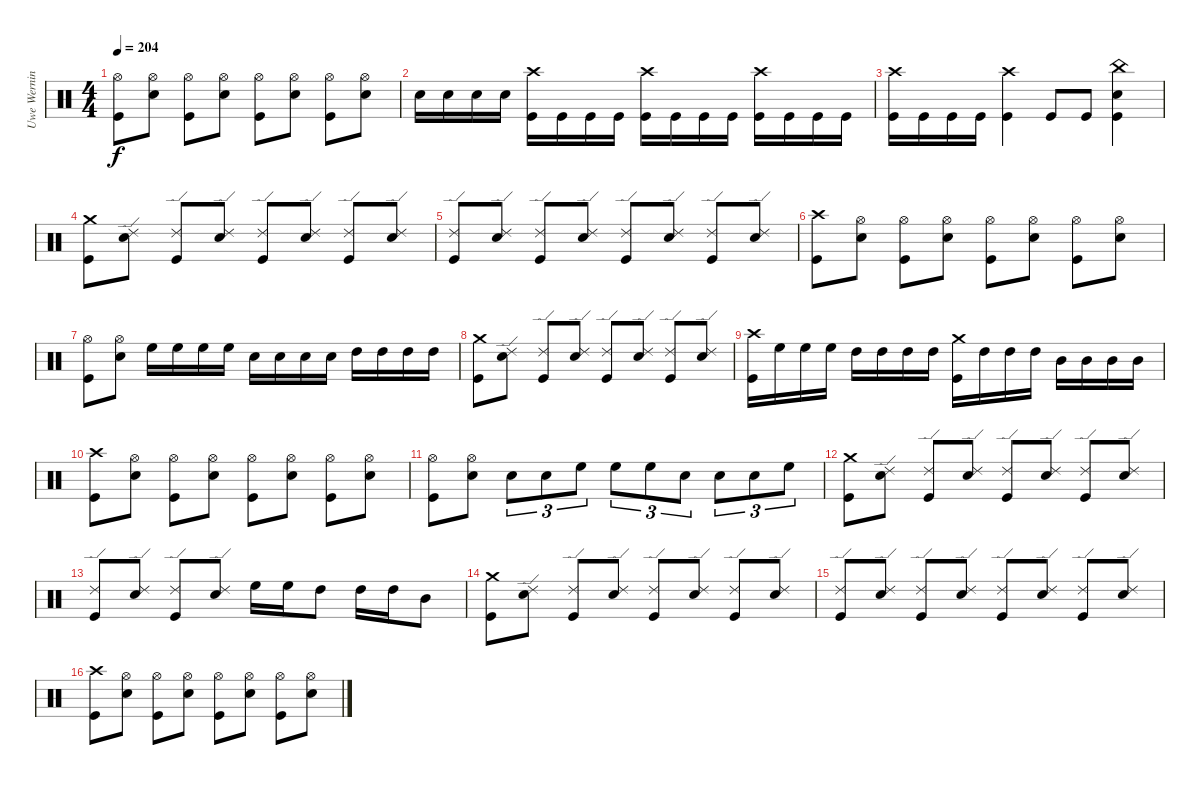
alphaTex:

\track ("Uwe Werning" "Uwe Wernin") {instrument percussion}
\staff {score}
\articulation defaults
\ts (4 4)
\tempo 204
\clef neutral
\ks c
("Hi-Hat (open)" "Kick (hit)").8{dy f} ("Hi-Hat (open)" "Snare (hit) 2").8 ("Hi-Hat (open)" "Kick (hit)").8 ("Hi-Hat (open)" "Snare (hit) 2").8 ("Hi-Hat (open)" "Kick (hit)").8 ("Hi-Hat (open)" "Snare (hit) 2").8 ("Hi-Hat (open)" "Kick (hit)").8 ("Hi-Hat (open)" "Snare (hit) 2").8 |
"Snare (hit) 2".16 "Snare (hit) 2".16 "Snare (hit) 2".16 "Snare (hit) 2".16 ("Crash high (hit)" "Kick (hit)").16 "Kick (hit)".16 "Kick (hit)".16 "Kick (hit)".16 ("Crash high (hit)" "Kick (hit)").16 "Kick (hit)".16 "Kick (hit)".16 "Kick (hit)".16 ("Crash high (hit)" "Kick (hit)").16 "Kick (hit)".16 "Kick (hit)".16 "Kick (hit)".16 |
("Crash high (hit)" "Kick (hit)").16 "Kick (hit)".16 "Kick (hit)".16 "Kick (hit)".16 ("Crash high (hit)" "Kick (hit)").4 "Kick (hit)".8 "Kick (hit)".8 ("China (hit)" "Snare (hit) 2" "Kick (hit)").4 |
("Crash medium (hit)" "Kick (hit)").8 ("Ride (edge) 2" "Snare (hit) 2").8 ("Ride (edge) 2" "Kick (hit)").8 ("Ride (edge) 2" "Snare (hit) 2").8 ("Ride (edge) 2" "Kick (hit)").8 ("Ride (edge) 2" "Snare (hit) 2").8 ("Ride (edge) 2" "Kick (hit)").8 ("Ride (edge) 2" "Snare (hit) 2").8 |
("Ride (edge) 2" "Kick (hit)").8 ("Ride (edge) 2" "Snare (hit) 2").8 ("Ride (edge) 2" "Kick (hit)").8 ("Ride (edge) 2" "Snare (hit) 2").8 ("Ride (edge) 2" "Kick (hit)").8 ("Ride (edge) 2" "Snare (hit) 2").8 ("Ride (edge) 2" "Kick (hit)").8 ("Ride (edge) 2" "Snare (hit) 2").8 |
("Crash high (hit)" "Kick (hit)").8 ("Hi-Hat (open)" "Snare (hit) 2").8 ("Hi-Hat (open)" "Kick (hit)").8 ("Hi-Hat (open)" "Snare (hit) 2").8 ("Hi-Hat (open)" "Kick (hit)").8 ("Hi-Hat (open)" "Snare (hit) 2").8 ("Hi-Hat (open)" "Kick (hit)").8 ("Hi-Hat (open)" "Snare (hit) 2").8 |
("Hi-Hat (open)" "Kick (hit)").8 ("Hi-Hat (open)" "Snare (hit) 2").8 "High Floor Tom (hit)".16 "High Floor Tom (hit)".16 "High Floor Tom (hit)".16 "High Floor Tom (hit)".16 "Snare (hit) 2".16 "Snare (hit) 2".16 "Snare (hit) 2".16 "Snare (hit) 2".16 "High Tom (hit)".16 "High Tom (hit)".16 "High Tom (hit)".16 "High Tom (hit)".16 |
("Crash medium (hit)" "Kick (hit)").8 ("Ride (edge) 2" "Snare (hit) 2").8 ("Ride (edge) 2" "Kick (hit)").8 ("Ride (edge) 2" "Snare (hit) 2").8 ("Ride (edge) 2" "Kick (hit)").8 ("Ride (edge) 2" "Snare (hit) 2").8 ("Ride (edge) 2" "Kick (hit)").8 ("Ride (edge) 2" "Snare (hit) 2").8 |
("Crash high (hit)" "Kick (hit)").16 "High Floor Tom (hit)".16 "High Floor Tom (hit)".16 "High Floor Tom (hit)".16 "High Tom (hit)".16 "High Tom (hit)".16 "High Tom (hit)".16 "High Tom (hit)".16 ("Crash medium (hit)" "Kick (hit)").16 "High Tom (hit)".16 "High Tom (hit)".16 "High Tom (hit)".16 "Mid Tom (hit)".16 "Mid Tom (hit)".16 "Mid Tom (hit)".16 "Mid Tom (hit)".16 |
("Crash high (hit)" "Kick (hit)").8 ("Hi-Hat (open)" "Snare (hit) 2").8 ("Hi-Hat (open)" "Kick (hit)").8 ("Hi-Hat (open)" "Snare (hit) 2").8 ("Hi-Hat (open)" "Kick (hit)").8 ("Hi-Hat (open)" "Snare (hit) 2").8 ("Hi-Hat (open)" "Kick (hit)").8 ("Hi-Hat (open)" "Snare (hit) 2").8 |
("Hi-Hat (open)" "Kick (hit)").8 ("Hi-Hat (open)" "Snare (hit) 2").8 "Snare (hit) 2".8{tu (3 2)} "Snare (hit) 2".8{tu (3 2)} "High Floor Tom (hit)".8{tu (3 2)} "High Floor Tom (hit)".8{tu (3 2)} "High Floor Tom (hit)".8{tu (3 2)} "Snare (hit) 2".8{tu (3 2)} "Snare (hit) 2".8{tu (3 2)} "Snare (hit) 2".8{tu (3 2)} "High Floor Tom (hit)".8{tu (3 2)} |
("Crash medium (hit)" "Kick (hit)").8 ("Ride (edge) 2" "Snare (hit) 2").8 ("Ride (edge) 2" "Kick (hit)").8 ("Ride (edge) 2" "Snare (hit) 2").8 ("Ride (edge) 2" "Kick (hit)").8 ("Ride (edge) 2" "Snare (hit) 2").8 ("Ride (edge) 2" "Kick (hit)").8 ("Ride (edge) 2" "Snare (hit) 2").8 |
("Ride (edge) 2" "Kick (hit)").8 ("Ride (edge) 2" "Snare (hit) 2").8 ("Ride (edge) 2" "Kick (hit)").8 ("Ride (edge) 2" "Snare (hit) 2").8 "High Floor Tom (hit)".16 "High Floor Tom (hit)".16 "High Tom (hit)".8 "High Tom (hit)".16 "High Tom (hit)".16 "Mid Tom (hit)".8 |
("Crash medium (hit)" "Kick (hit)").8 ("Ride (edge) 2" "Snare (hit) 2").8 ("Ride (edge) 2" "Kick (hit)").8 ("Ride (edge) 2" "Snare (hit) 2").8 ("Ride (edge) 2" "Kick (hit)").8 ("Ride (edge) 2" "Snare (hit) 2").8 ("Ride (edge) 2" "Kick (hit)").8 ("Ride (edge) 2" "Snare (hit) 2").8 |
("Ride (edge) 2" "Kick (hit)").8 ("Ride (edge) 2" "Snare (hit) 2").8 ("Ride (edge) 2" "Kick (hit)").8 ("Ride (edge) 2" "Snare (hit) 2").8 ("Ride (edge) 2" "Kick (hit)").8 ("Ride (edge) 2" "Snare (hit) 2").8 ("Ride (edge) 2" "Kick (hit)").8 ("Ride (edge) 2" "Snare (hit) 2").8 |
("Crash high (hit)" "Kick (hit)").8 ("Hi-Hat (open)" "Snare (hit) 2").8 ("Hi-Hat (open)" "Kick (hit)").8 ("Hi-Hat (open)" "Snare (hit) 2").8 ("Hi-Hat (open)" "Kick (hit)").8 ("Hi-Hat (open)" "Snare (hit) 2").8 ("Hi-Hat (open)" "Kick (hit)").8 ("Hi-Hat (open)" "Snare (hit) 2").8
